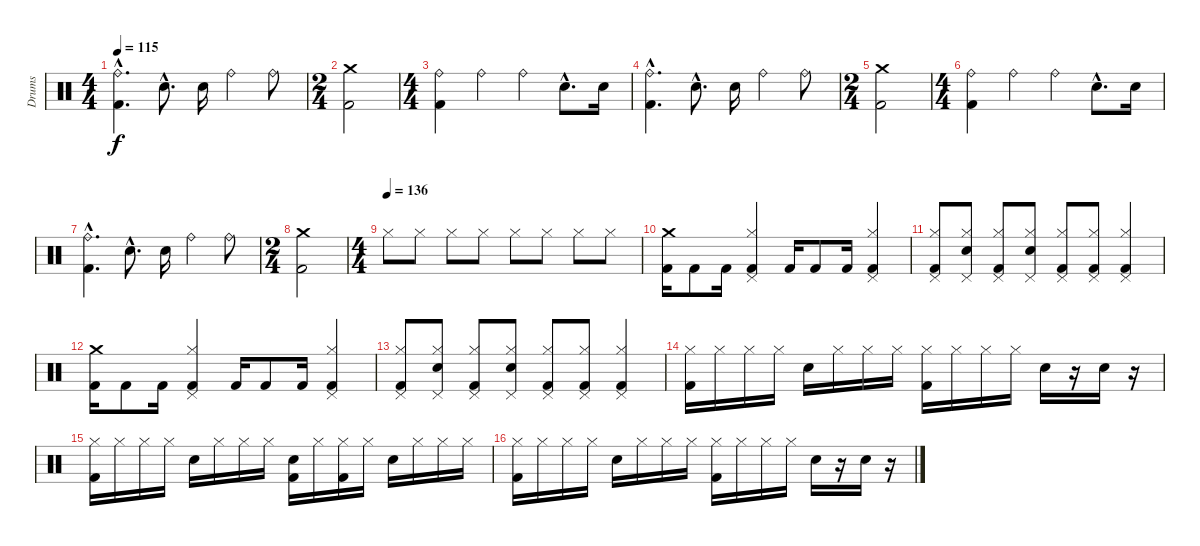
\track ("Drums" "Drums") {instrument percussion}
\staff {score}
\articulation defaults
\ts (4 4)
\tempo 115
\clef neutral
\ks c
("Kick (hit) 2"{hac} "Ride (bell)"{hac}).4{d dy f} "Snare (hit) 2"{hac}.8{d} "Snare (hit) 2".16 "Ride (bell)".4 "Ride (bell)".8 |
\ts (2 4)
("Kick (hit) 2" "Crash medium (hit)").2 |
\ts (4 4)
("Kick (hit) 2" "Ride (bell)").4 "Ride (bell)".4 "Ride (bell)".4 "Snare (hit) 2"{hac}.8{d} "Snare (hit) 2".16 |
("Kick (hit) 2"{hac} "Ride (bell)"{hac}).4{d} "Snare (hit) 2"{hac}.8{d} "Snare (hit) 2".16 "Ride (bell)".4 "Ride (bell)".8 |
\ts (2 4)
("Kick (hit) 2" "Crash medium (hit)").2 |
\ts (4 4)
("Kick (hit) 2" "Ride (bell)").4 "Ride (bell)".4 "Ride (bell)".4 "Snare (hit) 2"{hac}.8{d} "Snare (hit) 2".16 |
("Kick (hit) 2"{hac} "Ride (bell)"{hac}).4{d} "Snare (hit) 2"{hac}.8{d} "Snare (hit) 2".16 "Ride (bell)".4 "Ride (bell)".8 |
\ts (2 4)
("Kick (hit) 2" "Crash medium (hit)").2 |
\ts (4 4)
\tempo (136)
"Hi-Hat (closed)".8 "Hi-Hat (closed)".8 "Hi-Hat (closed)".8 "Hi-Hat (closed)".8 "Hi-Hat (closed)".8 "Hi-Hat (closed)".8 "Hi-Hat (closed)".8 "Hi-Hat (closed)".8 |
("Kick (hit) 2" "Crash medium (hit)").16 "Kick (hit) 2".8 "Kick (hit) 2".16 ("Kick (hit) 2" "Pedal Hi-Hat (hit)" "Hi-Hat (closed)").4 "Kick (hit) 2".16 "Kick (hit) 2".8 "Kick (hit) 2".16 ("Kick (hit) 2" "Pedal Hi-Hat (hit)" "Hi-Hat (closed)").4 |
("Kick (hit) 2" "Pedal Hi-Hat (hit)" "Hi-Hat (closed)").8 ("Snare (hit) 2" "Pedal Hi-Hat (hit)" "Hi-Hat (closed)").8 ("Kick (hit) 2" "Pedal Hi-Hat (hit)" "Hi-Hat (closed)").8 ("Snare (hit) 2" "Pedal Hi-Hat (hit)" "Hi-Hat (closed)").8 ("Kick (hit) 2" "Pedal Hi-Hat (hit)" "Hi-Hat (closed)").8 ("Kick (hit) 2" "Pedal Hi-Hat (hit)" "Hi-Hat (closed)").8 ("Kick (hit) 2" "Pedal Hi-Hat (hit)" "Hi-Hat (closed)").4 |
("Kick (hit) 2" "Crash medium (hit)").16 "Kick (hit) 2".8 "Kick (hit) 2".16 ("Kick (hit) 2" "Pedal Hi-Hat (hit)" "Hi-Hat (closed)").4 "Kick (hit) 2".16 "Kick (hit) 2".8 "Kick (hit) 2".16 ("Kick (hit) 2" "Pedal Hi-Hat (hit)" "Hi-Hat (closed)").4 |
("Kick (hit) 2" "Pedal Hi-Hat (hit)" "Hi-Hat (closed)").8 ("Snare (hit) 2" "Pedal Hi-Hat (hit)" "Hi-Hat (closed)").8 ("Kick (hit) 2" "Pedal Hi-Hat (hit)" "Hi-Hat (closed)").8 ("Snare (hit) 2" "Pedal Hi-Hat (hit)" "Hi-Hat (closed)").8 ("Kick (hit) 2" "Pedal Hi-Hat (hit)" "Hi-Hat (closed)").8 ("Kick (hit) 2" "Pedal Hi-Hat (hit)" "Hi-Hat (closed)").8 ("Kick (hit) 2" "Pedal Hi-Hat (hit)" "Hi-Hat (closed)").4 |
("Kick (hit) 2" "Hi-Hat (closed)").16 "Hi-Hat (closed)".16 "Hi-Hat (closed)".16 "Hi-Hat (closed)".16 "Electric Snare (hit)".16 "Hi-Hat (closed)".16 "Hi-Hat (closed)".16 "Hi-Hat (closed)".16 ("Kick (hit) 2" "Hi-Hat (closed)").16 "Hi-Hat (closed)".16 "Hi-Hat (closed)".16 "Hi-Hat (closed)".16 "Electric Snare (hit)".16 r.16 "Electric Snare (hit)".16 r.16 |
("Kick (hit) 2" "Hi-Hat (closed)").16 "Hi-Hat (closed)".16 "Hi-Hat (closed)".16 "Hi-Hat (closed)".16 "Electric Snare (hit)".16 "Hi-Hat (closed)".16 "Hi-Hat (closed)".16 "Hi-Hat (closed)".16 ("Kick (hit) 2" "Snare (hit)").16 "Hi-Hat (closed)".16 ("Kick (hit) 2" "Hi-Hat (closed)").16 "Hi-Hat (closed)".16 "Electric Snare (hit)".16 "Hi-Hat (closed)".16 "Hi-Hat (closed)".16 "Hi-Hat (closed)".16 |
("Kick (hit) 2" "Hi-Hat (closed)").16 "Hi-Hat (closed)".16 "Hi-Hat (closed)".16 "Hi-Hat (closed)".16 "Electric Snare (hit)".16 "Hi-Hat (closed)".16 "Hi-Hat (closed)".16 "Hi-Hat (closed)".16 ("Kick (hit) 2" "Hi-Hat (closed)").16 "Hi-Hat (closed)".16 "Hi-Hat (closed)".16 "Hi-Hat (closed)".16 "Electric Snare (hit)".16 r.16 "Electric Snare (hit)".16 r.16
